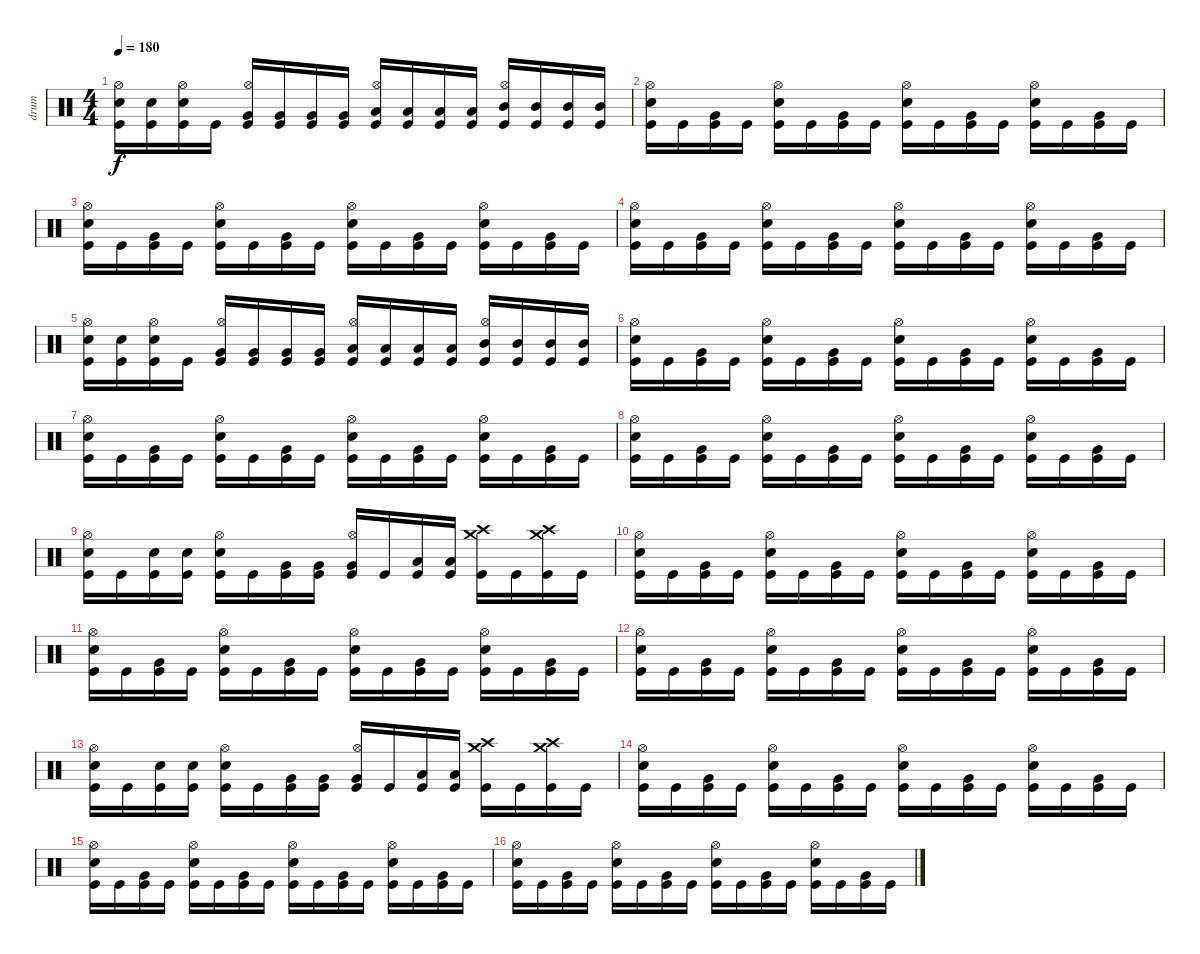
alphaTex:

\track ("drum" "drum") {instrument percussion}
\staff {score}
\articulation defaults
\ts (4 4)
\tempo 180
\clef neutral
\ks c
("Kick (hit)" "Snare (hit) 2" "Hi-Hat (open)").16{dy f} ("Kick (hit)" "Snare (hit) 2").16 ("Kick (hit)" "Snare (hit) 2" "Hi-Hat (open)").16 "Kick (hit)".16 ("Kick (hit)" "Very Low Tom (hit)" "Hi-Hat (open)").16 ("Kick (hit)" "Very Low Tom (hit)").16 ("Kick (hit)" "Very Low Tom (hit)").16 ("Kick (hit)" "Very Low Tom (hit)").16 ("Kick (hit)" "Low Tom (hit)" "Hi-Hat (open)").16 ("Kick (hit)" "Low Tom (hit)").16 ("Kick (hit)" "Low Tom (hit)").16 ("Kick (hit)" "Low Tom (hit)").16 ("Kick (hit)" "Mid Tom (hit)" "Hi-Hat (open)").16 ("Kick (hit)" "Mid Tom (hit)").16 ("Kick (hit)" "Mid Tom (hit)").16 ("Kick (hit)" "Mid Tom (hit)").16 |
("Kick (hit)" "Snare (hit) 2" "Hi-Hat (open)").16 "Kick (hit)".16 ("Kick (hit)" "Very Low Tom (hit)").16 "Kick (hit)".16 ("Kick (hit)" "Snare (hit) 2" "Hi-Hat (open)").16 "Kick (hit)".16 ("Kick (hit)" "Very Low Tom (hit)").16 "Kick (hit)".16 ("Kick (hit)" "Snare (hit) 2" "Hi-Hat (open)").16 "Kick (hit)".16 ("Kick (hit)" "Very Low Tom (hit)").16 "Kick (hit)".16 ("Kick (hit)" "Snare (hit) 2" "Hi-Hat (open)").16 "Kick (hit)".16 ("Kick (hit)" "Very Low Tom (hit)").16 "Kick (hit)".16 |
("Kick (hit)" "Snare (hit) 2" "Hi-Hat (open)").16 "Kick (hit)".16 ("Kick (hit)" "Very Low Tom (hit)").16 "Kick (hit)".16 ("Kick (hit)" "Snare (hit) 2" "Hi-Hat (open)").16 "Kick (hit)".16 ("Kick (hit)" "Very Low Tom (hit)").16 "Kick (hit)".16 ("Kick (hit)" "Snare (hit) 2" "Hi-Hat (open)").16 "Kick (hit)".16 ("Kick (hit)" "Very Low Tom (hit)").16 "Kick (hit)".16 ("Kick (hit)" "Snare (hit) 2" "Hi-Hat (open)").16 "Kick (hit)".16 ("Kick (hit)" "Very Low Tom (hit)").16 "Kick (hit)".16 |
("Kick (hit)" "Snare (hit) 2" "Hi-Hat (open)").16 "Kick (hit)".16 ("Kick (hit)" "Very Low Tom (hit)").16 "Kick (hit)".16 ("Kick (hit)" "Snare (hit) 2" "Hi-Hat (open)").16 "Kick (hit)".16 ("Kick (hit)" "Very Low Tom (hit)").16 "Kick (hit)".16 ("Kick (hit)" "Snare (hit) 2" "Hi-Hat (open)").16 "Kick (hit)".16 ("Kick (hit)" "Very Low Tom (hit)").16 "Kick (hit)".16 ("Kick (hit)" "Snare (hit) 2" "Hi-Hat (open)").16 "Kick (hit)".16 ("Kick (hit)" "Very Low Tom (hit)").16 "Kick (hit)".16 |
("Kick (hit)" "Snare (hit) 2" "Hi-Hat (open)").16 ("Kick (hit)" "Snare (hit) 2").16 ("Kick (hit)" "Snare (hit) 2" "Hi-Hat (open)").16 "Kick (hit)".16 ("Kick (hit)" "Very Low Tom (hit)" "Hi-Hat (open)").16 ("Kick (hit)" "Very Low Tom (hit)").16 ("Kick (hit)" "Very Low Tom (hit)").16 ("Kick (hit)" "Very Low Tom (hit)").16 ("Kick (hit)" "Low Tom (hit)" "Hi-Hat (open)").16 ("Kick (hit)" "Low Tom (hit)").16 ("Kick (hit)" "Low Tom (hit)").16 ("Kick (hit)" "Low Tom (hit)").16 ("Kick (hit)" "Mid Tom (hit)" "Hi-Hat (open)").16 ("Kick (hit)" "Mid Tom (hit)").16 ("Kick (hit)" "Mid Tom (hit)").16 ("Kick (hit)" "Mid Tom (hit)").16 |
("Kick (hit)" "Snare (hit) 2" "Hi-Hat (open)").16 "Kick (hit)".16 ("Kick (hit)" "Very Low Tom (hit)").16 "Kick (hit)".16 ("Kick (hit)" "Snare (hit) 2" "Hi-Hat (open)").16 "Kick (hit)".16 ("Kick (hit)" "Very Low Tom (hit)").16 "Kick (hit)".16 ("Kick (hit)" "Snare (hit) 2" "Hi-Hat (open)").16 "Kick (hit)".16 ("Kick (hit)" "Very Low Tom (hit)").16 "Kick (hit)".16 ("Kick (hit)" "Snare (hit) 2" "Hi-Hat (open)").16 "Kick (hit)".16 ("Kick (hit)" "Very Low Tom (hit)").16 "Kick (hit)".16 |
("Kick (hit)" "Snare (hit) 2" "Hi-Hat (open)").16 "Kick (hit)".16 ("Kick (hit)" "Very Low Tom (hit)").16 "Kick (hit)".16 ("Kick (hit)" "Snare (hit) 2" "Hi-Hat (open)").16 "Kick (hit)".16 ("Kick (hit)" "Very Low Tom (hit)").16 "Kick (hit)".16 ("Kick (hit)" "Snare (hit) 2" "Hi-Hat (open)").16 "Kick (hit)".16 ("Kick (hit)" "Very Low Tom (hit)").16 "Kick (hit)".16 ("Kick (hit)" "Snare (hit) 2" "Hi-Hat (open)").16 "Kick (hit)".16 ("Kick (hit)" "Very Low Tom (hit)").16 "Kick (hit)".16 |
("Kick (hit)" "Snare (hit) 2" "Hi-Hat (open)").16 "Kick (hit)".16 ("Kick (hit)" "Very Low Tom (hit)").16 "Kick (hit)".16 ("Kick (hit)" "Snare (hit) 2" "Hi-Hat (open)").16 "Kick (hit)".16 ("Kick (hit)" "Very Low Tom (hit)").16 "Kick (hit)".16 ("Kick (hit)" "Snare (hit) 2" "Hi-Hat (open)").16 "Kick (hit)".16 ("Kick (hit)" "Very Low Tom (hit)").16 "Kick (hit)".16 ("Kick (hit)" "Snare (hit) 2" "Hi-Hat (open)").16 "Kick (hit)".16 ("Kick (hit)" "Very Low Tom (hit)").16 "Kick (hit)".16 |
("Kick (hit)" "Snare (hit) 2" "Hi-Hat (open)").16 "Kick (hit)".16 ("Kick (hit)" "Snare (hit) 2").16 ("Kick (hit)" "Snare (hit) 2").16 ("Kick (hit)" "Snare (hit) 2" "Hi-Hat (open)").16 "Kick (hit)".16 ("Kick (hit)" "Very Low Tom (hit)").16 ("Kick (hit)" "Very Low Tom (hit)").16 ("Kick (hit)" "Very Low Tom (hit)" "Hi-Hat (open)").16 "Kick (hit)".16 ("Kick (hit)" "Low Tom (hit)").16 ("Kick (hit)" "Low Tom (hit)").16 ("Kick (hit)" "Crash high (hit)" "Crash medium (hit)").16 "Kick (hit)".16 ("Kick (hit)" "Crash high (hit)" "Crash medium (hit)").16 "Kick (hit)".16 |
("Kick (hit)" "Snare (hit) 2" "Hi-Hat (open)").16 "Kick (hit)".16 ("Kick (hit)" "Very Low Tom (hit)").16 "Kick (hit)".16 ("Kick (hit)" "Snare (hit) 2" "Hi-Hat (open)").16 "Kick (hit)".16 ("Kick (hit)" "Very Low Tom (hit)").16 "Kick (hit)".16 ("Kick (hit)" "Snare (hit) 2" "Hi-Hat (open)").16 "Kick (hit)".16 ("Kick (hit)" "Very Low Tom (hit)").16 "Kick (hit)".16 ("Kick (hit)" "Snare (hit) 2" "Hi-Hat (open)").16 "Kick (hit)".16 ("Kick (hit)" "Very Low Tom (hit)").16 "Kick (hit)".16 |
("Kick (hit)" "Snare (hit) 2" "Hi-Hat (open)").16 "Kick (hit)".16 ("Kick (hit)" "Very Low Tom (hit)").16 "Kick (hit)".16 ("Kick (hit)" "Snare (hit) 2" "Hi-Hat (open)").16 "Kick (hit)".16 ("Kick (hit)" "Very Low Tom (hit)").16 "Kick (hit)".16 ("Kick (hit)" "Snare (hit) 2" "Hi-Hat (open)").16 "Kick (hit)".16 ("Kick (hit)" "Very Low Tom (hit)").16 "Kick (hit)".16 ("Kick (hit)" "Snare (hit) 2" "Hi-Hat (open)").16 "Kick (hit)".16 ("Kick (hit)" "Very Low Tom (hit)").16 "Kick (hit)".16 |
("Kick (hit)" "Snare (hit) 2" "Hi-Hat (open)").16 "Kick (hit)".16 ("Kick (hit)" "Very Low Tom (hit)").16 "Kick (hit)".16 ("Kick (hit)" "Snare (hit) 2" "Hi-Hat (open)").16 "Kick (hit)".16 ("Kick (hit)" "Very Low Tom (hit)").16 "Kick (hit)".16 ("Kick (hit)" "Snare (hit) 2" "Hi-Hat (open)").16 "Kick (hit)".16 ("Kick (hit)" "Very Low Tom (hit)").16 "Kick (hit)".16 ("Kick (hit)" "Snare (hit) 2" "Hi-Hat (open)").16 "Kick (hit)".16 ("Kick (hit)" "Very Low Tom (hit)").16 "Kick (hit)".16 |
("Kick (hit)" "Snare (hit) 2" "Hi-Hat (open)").16 "Kick (hit)".16 ("Kick (hit)" "Snare (hit) 2").16 ("Kick (hit)" "Snare (hit) 2").16 ("Kick (hit)" "Snare (hit) 2" "Hi-Hat (open)").16 "Kick (hit)".16 ("Kick (hit)" "Very Low Tom (hit)").16 ("Kick (hit)" "Very Low Tom (hit)").16 ("Kick (hit)" "Very Low Tom (hit)" "Hi-Hat (open)").16 "Kick (hit)".16 ("Kick (hit)" "Low Tom (hit)").16 ("Kick (hit)" "Low Tom (hit)").16 ("Kick (hit)" "Crash high (hit)" "Crash medium (hit)").16 "Kick (hit)".16 ("Kick (hit)" "Crash high (hit)" "Crash medium (hit)").16 "Kick (hit)".16 |
("Kick (hit)" "Snare (hit) 2" "Hi-Hat (open)").16 "Kick (hit)".16 ("Kick (hit)" "Very Low Tom (hit)").16 "Kick (hit)".16 ("Kick (hit)" "Snare (hit) 2" "Hi-Hat (open)").16 "Kick (hit)".16 ("Kick (hit)" "Very Low Tom (hit)").16 "Kick (hit)".16 ("Kick (hit)" "Snare (hit) 2" "Hi-Hat (open)").16 "Kick (hit)".16 ("Kick (hit)" "Very Low Tom (hit)").16 "Kick (hit)".16 ("Kick (hit)" "Snare (hit) 2" "Hi-Hat (open)").16 "Kick (hit)".16 ("Kick (hit)" "Very Low Tom (hit)").16 "Kick (hit)".16 |
("Kick (hit)" "Snare (hit) 2" "Hi-Hat (open)").16 "Kick (hit)".16 ("Kick (hit)" "Very Low Tom (hit)").16 "Kick (hit)".16 ("Kick (hit)" "Snare (hit) 2" "Hi-Hat (open)").16 "Kick (hit)".16 ("Kick (hit)" "Very Low Tom (hit)").16 "Kick (hit)".16 ("Kick (hit)" "Snare (hit) 2" "Hi-Hat (open)").16 "Kick (hit)".16 ("Kick (hit)" "Very Low Tom (hit)").16 "Kick (hit)".16 ("Kick (hit)" "Snare (hit) 2" "Hi-Hat (open)").16 "Kick (hit)".16 ("Kick (hit)" "Very Low Tom (hit)").16 "Kick (hit)".16 |
("Kick (hit)" "Snare (hit) 2" "Hi-Hat (open)").16 "Kick (hit)".16 ("Kick (hit)" "Very Low Tom (hit)").16 "Kick (hit)".16 ("Kick (hit)" "Snare (hit) 2" "Hi-Hat (open)").16 "Kick (hit)".16 ("Kick (hit)" "Very Low Tom (hit)").16 "Kick (hit)".16 ("Kick (hit)" "Snare (hit) 2" "Hi-Hat (open)").16 "Kick (hit)".16 ("Kick (hit)" "Very Low Tom (hit)").16 "Kick (hit)".16 ("Kick (hit)" "Snare (hit) 2" "Hi-Hat (open)").16 "Kick (hit)".16 ("Kick (hit)" "Very Low Tom (hit)").16 "Kick (hit)".16
